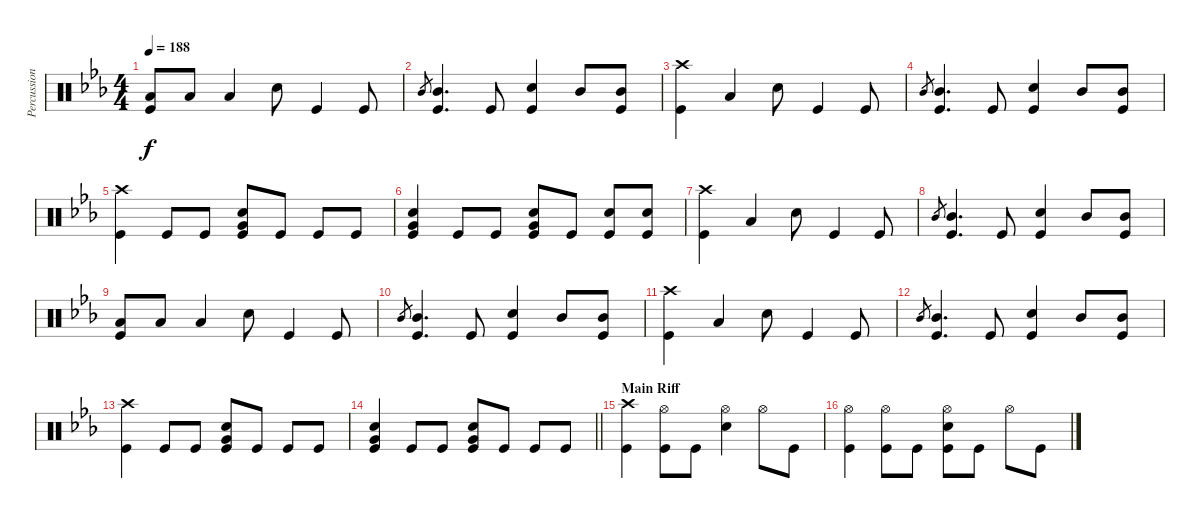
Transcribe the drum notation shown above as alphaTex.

\track ("Percussion" "Percussion") {instrument percussion}
\staff {score}
\articulation defaults
\ts (4 4)
\tempo 188
\clef neutral
\ks eb
("Low Tom (hit)" "Kick (hit)").8{dy f} "Low Tom (hit)".8 "Low Tom (hit)".4 "Electric Snare (hit)".8 "Kick (hit)".4 "Kick (hit)".8 |
"Mid Tom (hit)".8{gr} ("Mid Tom (hit)" "Kick (hit)").4{d} "Kick (hit)".8 ("Electric Snare (hit)" "Kick (hit)").4 "Mid Tom (hit)".8 ("Mid Tom (hit)" "Kick (hit)").8 |
("Crash high (hit)" "Kick (hit)").4 "Low Tom (hit)".4 "Electric Snare (hit)".8 "Kick (hit)".4 "Kick (hit)".8 |
"Mid Tom (hit)".8{gr} ("Mid Tom (hit)" "Kick (hit)").4{d} "Kick (hit)".8 ("Electric Snare (hit)" "Kick (hit)").4 "Mid Tom (hit)".8 ("Mid Tom (hit)" "Kick (hit)").8 |
("Crash high (hit)" "Kick (hit)").4 "Kick (hit)".8 "Kick (hit)".8 ("Electric Snare (hit)" "Very Low Tom (hit)" "Kick (hit)").8 "Kick (hit)".8 "Kick (hit)".8 "Kick (hit)".8 |
("Electric Snare (hit)" "Very Low Tom (hit)" "Kick (hit)").4 "Kick (hit)".8 "Kick (hit)".8 ("Electric Snare (hit)" "Very Low Tom (hit)" "Kick (hit)").8 "Kick (hit)".8 ("Electric Snare (hit)" "Kick (hit)").8 ("Electric Snare (hit)" "Kick (hit)").8 |
("Crash high (hit)" "Kick (hit)").4 "Low Tom (hit)".4 "Electric Snare (hit)".8 "Kick (hit)".4 "Kick (hit)".8 |
"Mid Tom (hit)".8{gr} ("Mid Tom (hit)" "Kick (hit)").4{d} "Kick (hit)".8 ("Electric Snare (hit)" "Kick (hit)").4 "Mid Tom (hit)".8 ("Mid Tom (hit)" "Kick (hit)").8 |
("Low Tom (hit)" "Kick (hit)").8 "Low Tom (hit)".8 "Low Tom (hit)".4 "Electric Snare (hit)".8 "Kick (hit)".4 "Kick (hit)".8 |
"Mid Tom (hit)".8{gr} ("Mid Tom (hit)" "Kick (hit)").4{d} "Kick (hit)".8 ("Electric Snare (hit)" "Kick (hit)").4 "Mid Tom (hit)".8 ("Mid Tom (hit)" "Kick (hit)").8 |
("Crash high (hit)" "Kick (hit)").4 "Low Tom (hit)".4 "Electric Snare (hit)".8 "Kick (hit)".4 "Kick (hit)".8 |
"Mid Tom (hit)".8{gr} ("Mid Tom (hit)" "Kick (hit)").4{d} "Kick (hit)".8 ("Electric Snare (hit)" "Kick (hit)").4 "Mid Tom (hit)".8 ("Mid Tom (hit)" "Kick (hit)").8 |
("Crash high (hit)" "Kick (hit)").4 "Kick (hit)".8 "Kick (hit)".8 ("Electric Snare (hit)" "Very Low Tom (hit)" "Kick (hit)").8 "Kick (hit)".8 "Kick (hit)".8 "Kick (hit)".8 |
\barLineRight lightlight
("Electric Snare (hit)" "Very Low Tom (hit)" "Kick (hit)").4 "Kick (hit)".8 "Kick (hit)".8 ("Electric Snare (hit)" "Very Low Tom (hit)" "Kick (hit)").8 "Kick (hit)".8 "Kick (hit)".8 "Kick (hit)".8 |
\section ("" "Main Riff")
("Crash high (hit)" "Kick (hit)").4 ("Hi-Hat (open)" "Kick (hit)").8 "Kick (hit)".8 ("Hi-Hat (open)" "Electric Snare (hit)").4 "Hi-Hat (open)".8 "Kick (hit)".8 |
("Hi-Hat (open)" "Kick (hit)").4 ("Hi-Hat (open)" "Kick (hit)").8 "Kick (hit)".8 ("Hi-Hat (open)" "Electric Snare (hit)" "Kick (hit)").8 "Kick (hit)".8 "Hi-Hat (open)".8 "Kick (hit)".8
